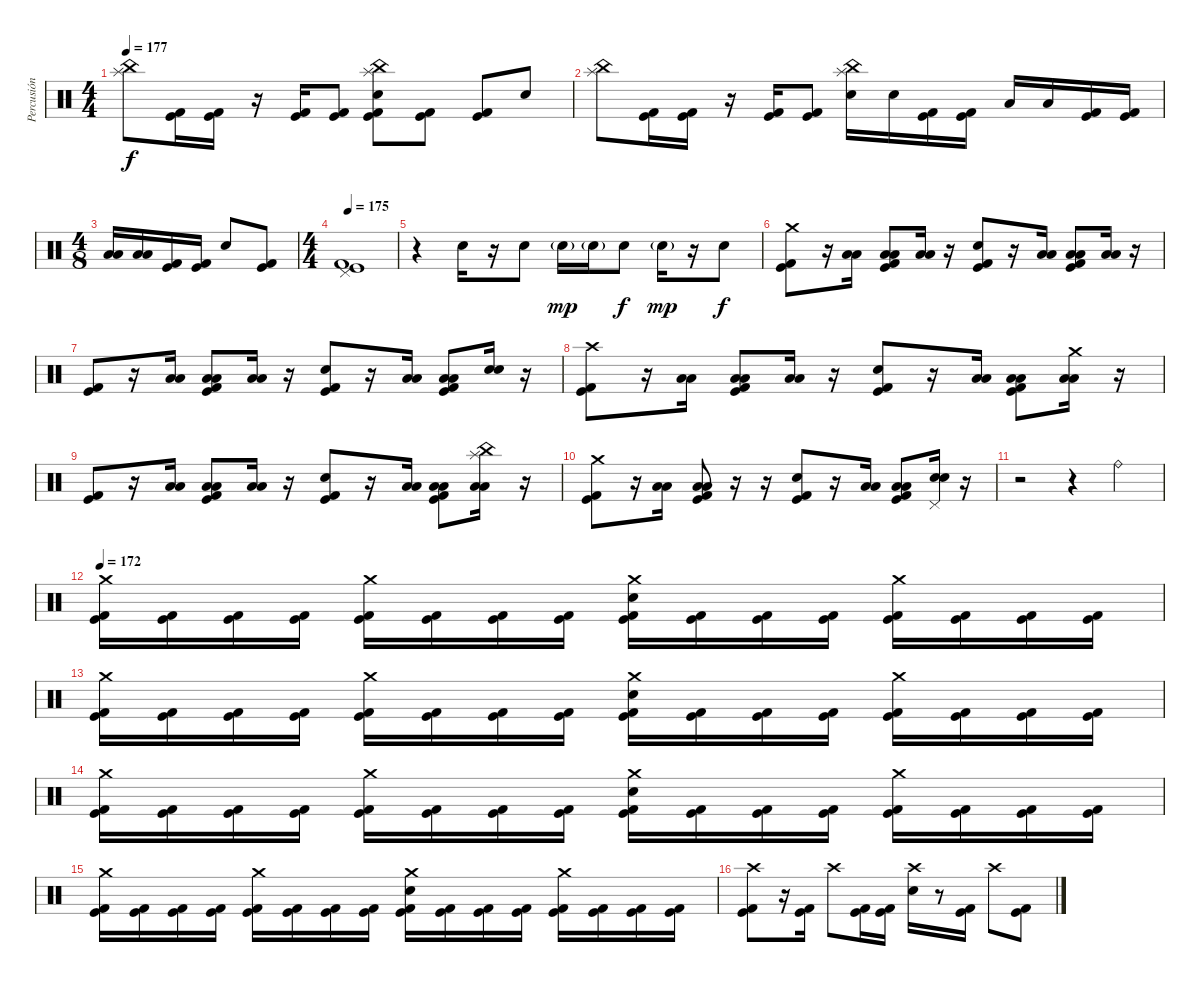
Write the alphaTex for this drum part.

\track ("Percusión" "Percusión") {instrument percussion}
\staff {score}
\articulation defaults
\ts (4 4)
\tempo 177
\clef neutral
\ks c
("Splash (hit)" "China (hit)").8{dy f} ("Kick (hit)" "Kick (hit) 2").16 ("Kick (hit)" "Kick (hit) 2").16 r.16 ("Kick (hit)" "Kick (hit) 2").16 ("Kick (hit)" "Kick (hit) 2").8 ("Splash (hit)" "China (hit)" "Electric Snare (hit)" "Kick (hit)" "Kick (hit) 2").8 ("Kick (hit)" "Kick (hit) 2").8 ("Kick (hit)" "Kick (hit) 2").8 "Electric Snare (hit)".8 |
("Splash (hit)" "China (hit)").8 ("Kick (hit)" "Kick (hit) 2").16 ("Kick (hit)" "Kick (hit) 2").16 r.16 ("Kick (hit)" "Kick (hit) 2").16 ("Kick (hit)" "Kick (hit) 2").8 ("Splash (hit)" "China (hit)" "Electric Snare (hit)").16 "Electric Snare (hit)".16 ("Kick (hit)" "Kick (hit) 2").16 ("Kick (hit)" "Kick (hit) 2").16 "Low Tom (hit)".16 "Low Tom (hit)".16 ("Kick (hit)" "Kick (hit) 2").16 ("Kick (hit)" "Kick (hit) 2").16 |
\ts (4 8)
("Low Floor Tom (hit)" "Low Floor Tom (hit)").16 ("Low Floor Tom (hit)" "Low Floor Tom (hit)").16 ("Kick (hit)" "Kick (hit) 2").16 ("Kick (hit)" "Kick (hit) 2").16 "Electric Snare (hit)".8 ("Kick (hit)" "Kick (hit) 2").8 |
\ts (4 4)
\tempo 175
("Pedal Hi-Hat (hit)" "Kick (hit)" "Kick (hit) 2").1 |
r.4 "Electric Snare (hit)".16 r.16 "Electric Snare (hit)".8 "Electric Snare (hit)"{g}.16{dy mp} "Electric Snare (hit)"{g}.16 "Electric Snare (hit)".8{dy f} "Electric Snare (hit)"{g}.16{dy mp} r.16 "Electric Snare (hit)".8{dy f} |
("Crash medium (hit)" "Kick (hit)" "Kick (hit) 2").8 r.16 ("Low Tom (hit)" "Low Tom (hit)").16 ("Low Floor Tom (hit)" "Low Floor Tom (hit)" "Kick (hit) 2" "Kick (hit)").8 ("Low Tom (hit)" "Low Tom (hit)").16 r.16 ("Electric Snare (hit)" "Kick (hit)" "Kick (hit) 2").8 r.16 ("Low Tom (hit)" "Low Tom (hit)").16 ("Low Floor Tom (hit)" "Low Floor Tom (hit)" "Kick (hit)" "Kick (hit) 2").8 ("Low Tom (hit)" "Low Tom (hit)").16 r.16 |
("Kick (hit)" "Kick (hit) 2").8 r.16 ("Low Tom (hit)" "Low Tom (hit)").16 ("Low Floor Tom (hit)" "Low Floor Tom (hit)" "Kick (hit) 2" "Kick (hit)").8 ("Low Tom (hit)" "Low Tom (hit)").16 r.16 ("Electric Snare (hit)" "Kick (hit)" "Kick (hit) 2").8 r.16 ("Low Tom (hit)" "Low Tom (hit)").16 ("Low Floor Tom (hit)" "Low Floor Tom (hit)" "Kick (hit)" "Kick (hit) 2").8 ("Electric Snare (hit)" "Electric Snare (hit)").16 r.16 |
("Crash high (hit)" "Kick (hit)" "Kick (hit) 2").8 r.16 ("Low Tom (hit)" "Low Tom (hit)").16 ("Low Floor Tom (hit)" "Low Floor Tom (hit)" "Kick (hit) 2" "Kick (hit)").8 ("Low Tom (hit)" "Low Tom (hit)").16 r.16 ("Electric Snare (hit)" "Kick (hit)" "Kick (hit) 2").8 r.16 ("Low Tom (hit)" "Low Tom (hit)").16 ("Low Floor Tom (hit)" "Low Floor Tom (hit)" "Kick (hit)" "Kick (hit) 2").8 ("Crash medium (hit)" "Low Tom (hit)" "Low Tom (hit)").16 r.16 |
("Kick (hit)" "Kick (hit) 2").8 r.16 ("Low Tom (hit)" "Low Tom (hit)").16 ("Low Floor Tom (hit)" "Low Floor Tom (hit)" "Kick (hit) 2" "Kick (hit)").8 ("Low Tom (hit)" "Low Tom (hit)").16 r.16 ("Electric Snare (hit)" "Kick (hit)" "Kick (hit) 2").8 r.16 ("Low Tom (hit)" "Low Tom (hit)").16 ("Low Floor Tom (hit)" "Low Floor Tom (hit)" "Kick (hit)" "Kick (hit) 2").8 ("Splash (hit)" "China (hit)" "Low Tom (hit)" "Low Tom (hit)").16 r.16 |
("Crash medium (hit)" "Kick (hit)" "Kick (hit) 2").8 r.16 ("Low Tom (hit)" "Low Tom (hit)").16 ("Low Floor Tom (hit)" "Low Floor Tom (hit)" "Kick (hit) 2" "Kick (hit)").8 r.16 r.16 ("Electric Snare (hit)" "Kick (hit)" "Kick (hit) 2").8 r.16 ("Low Tom (hit)" "Low Tom (hit)").16 ("Low Floor Tom (hit)" "Low Floor Tom (hit)" "Kick (hit)" "Kick (hit) 2").8 ("Pedal Hi-Hat (hit)" "Electric Snare (hit)" "Electric Snare (hit)").16 r.16 |
r.2 r.4 "Ride (bell)".4 |
\tempo 172
("Crash medium (hit)" "Kick (hit)" "Kick (hit) 2").16 ("Kick (hit)" "Kick (hit) 2").16 ("Kick (hit)" "Kick (hit) 2").16 ("Kick (hit)" "Kick (hit) 2").16 ("Crash medium (hit)" "Kick (hit)" "Kick (hit) 2").16 ("Kick (hit)" "Kick (hit) 2").16 ("Kick (hit)" "Kick (hit) 2").16 ("Kick (hit)" "Kick (hit) 2").16 ("Crash medium (hit)" "Electric Snare (hit)" "Kick (hit)" "Kick (hit) 2").16 ("Kick (hit)" "Kick (hit) 2").16 ("Kick (hit)" "Kick (hit) 2").16 ("Kick (hit)" "Kick (hit) 2").16 ("Crash medium (hit)" "Kick (hit)" "Kick (hit) 2").16 ("Kick (hit)" "Kick (hit) 2").16 ("Kick (hit)" "Kick (hit) 2").16 ("Kick (hit)" "Kick (hit) 2").16 |
("Crash medium (hit)" "Kick (hit)" "Kick (hit) 2").16 ("Kick (hit)" "Kick (hit) 2").16 ("Kick (hit)" "Kick (hit) 2").16 ("Kick (hit)" "Kick (hit) 2").16 ("Crash medium (hit)" "Kick (hit)" "Kick (hit) 2").16 ("Kick (hit)" "Kick (hit) 2").16 ("Kick (hit)" "Kick (hit) 2").16 ("Kick (hit)" "Kick (hit) 2").16 ("Crash medium (hit)" "Electric Snare (hit)" "Kick (hit)" "Kick (hit) 2").16 ("Kick (hit)" "Kick (hit) 2").16 ("Kick (hit)" "Kick (hit) 2").16 ("Kick (hit)" "Kick (hit) 2").16 ("Crash medium (hit)" "Kick (hit)" "Kick (hit) 2").16 ("Kick (hit)" "Kick (hit) 2").16 ("Kick (hit)" "Kick (hit) 2").16 ("Kick (hit)" "Kick (hit) 2").16 |
("Crash medium (hit)" "Kick (hit)" "Kick (hit) 2").16 ("Kick (hit)" "Kick (hit) 2").16 ("Kick (hit)" "Kick (hit) 2").16 ("Kick (hit)" "Kick (hit) 2").16 ("Crash medium (hit)" "Kick (hit)" "Kick (hit) 2").16 ("Kick (hit)" "Kick (hit) 2").16 ("Kick (hit)" "Kick (hit) 2").16 ("Kick (hit)" "Kick (hit) 2").16 ("Crash medium (hit)" "Electric Snare (hit)" "Kick (hit)" "Kick (hit) 2").16 ("Kick (hit)" "Kick (hit) 2").16 ("Kick (hit)" "Kick (hit) 2").16 ("Kick (hit)" "Kick (hit) 2").16 ("Crash medium (hit)" "Kick (hit)" "Kick (hit) 2").16 ("Kick (hit)" "Kick (hit) 2").16 ("Kick (hit)" "Kick (hit) 2").16 ("Kick (hit)" "Kick (hit) 2").16 |
("Crash medium (hit)" "Kick (hit)" "Kick (hit) 2").16 ("Kick (hit)" "Kick (hit) 2").16 ("Kick (hit)" "Kick (hit) 2").16 ("Kick (hit)" "Kick (hit) 2").16 ("Crash medium (hit)" "Kick (hit)" "Kick (hit) 2").16 ("Kick (hit)" "Kick (hit) 2").16 ("Kick (hit)" "Kick (hit) 2").16 ("Kick (hit)" "Kick (hit) 2").16 ("Crash medium (hit)" "Electric Snare (hit)" "Kick (hit)" "Kick (hit) 2").16 ("Kick (hit)" "Kick (hit) 2").16 ("Kick (hit)" "Kick (hit) 2").16 ("Kick (hit)" "Kick (hit) 2").16 ("Crash medium (hit)" "Kick (hit)" "Kick (hit) 2").16 ("Kick (hit)" "Kick (hit) 2").16 ("Kick (hit)" "Kick (hit) 2").16 ("Kick (hit)" "Kick (hit) 2").16 |
("Crash high (hit)" "Kick (hit)" "Kick (hit) 2").8 r.16 ("Kick (hit)" "Kick (hit) 2").16 "Crash high (hit)".8 ("Kick (hit)" "Kick (hit) 2").16 ("Kick (hit)" "Kick (hit) 2").16 ("Crash high (hit)" "Electric Snare (hit)").16 r.8 ("Kick (hit)" "Kick (hit) 2").16 "Crash high (hit)".8 ("Kick (hit)" "Kick (hit) 2").8
